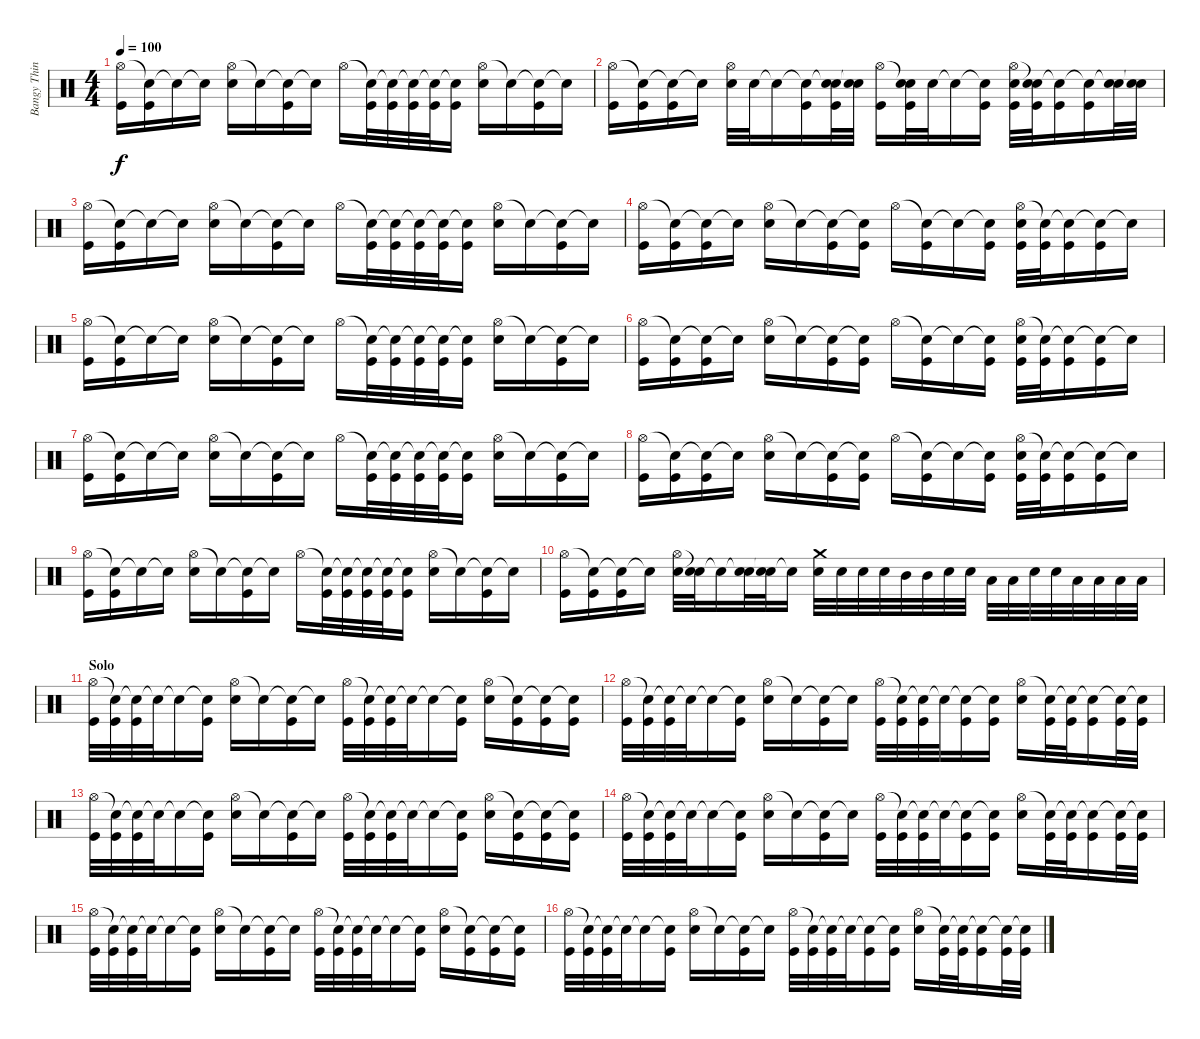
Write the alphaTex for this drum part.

\track ("Bangy Things" "Bangy Thin") {instrument percussion}
\staff {score}
\articulation defaults
\ts (4 4)
\tempo 100
\clef neutral
\ks c
("Hi-Hat (open)" "Kick (hit)").16{dy f} ("Snare (hit)"{t} "Kick (hit)").16 "Snare (hit)"{t}.16 "Snare (hit)"{t}.16 ("Hi-Hat (open)" "Electric Snare (hit)").16 "Snare (hit)"{t}.16 ("Snare (hit)"{t} "Kick (hit)").16 "Snare (hit)"{t}.16 "Hi-Hat (open)".16 ("Snare (hit)"{t} "Kick (hit)").32 ("Snare (hit)"{t} "Kick (hit)").32 ("Snare (hit)"{t} "Kick (hit)").32 ("Snare (hit)"{t} "Kick (hit)").32 ("Snare (hit)"{t} "Kick (hit)").16 ("Hi-Hat (open)" "Electric Snare (hit)").16 "Snare (hit)"{t}.16 ("Snare (hit)"{t} "Kick (hit)").16 "Snare (hit)"{t}.16 |
("Hi-Hat (open)" "Kick (hit)").16 ("Snare (hit)"{t} "Kick (hit)").16 ("Snare (hit)"{t} "Kick (hit)").16 "Snare (hit)"{t}.16 ("Hi-Hat (open)" "Electric Snare (hit)").32 "Electric Snare (hit)".32 "Snare (hit)"{t}.16 ("Snare (hit)"{t} "Kick (hit)").16 ("Snare (hit)"{t} "Electric Snare (hit)" "Kick (hit)").32 ("Snare (hit)"{t} "Electric Snare (hit)").32 ("Hi-Hat (open)" "Kick (hit)").16 ("Snare (hit)"{t} "Electric Snare (hit)" "Kick (hit)").32 "Electric Snare (hit)".32 "Snare (hit)"{t}.16 ("Snare (hit)"{t} "Kick (hit)").16 ("Hi-Hat (open)" "Electric Snare (hit)" "Kick (hit)").32 ("Snare (hit)"{t} "Electric Snare (hit)" "Kick (hit)").32 ("Snare (hit)"{t} "Kick (hit)").16 ("Snare (hit)"{t} "Kick (hit)").16 ("Snare (hit)"{t} "Electric Snare (hit)").32 ("Snare (hit)"{t} "Electric Snare (hit)").32 |
("Hi-Hat (open)" "Kick (hit)").16 ("Snare (hit)"{t} "Kick (hit)").16 "Snare (hit)"{t}.16 "Snare (hit)"{t}.16 ("Hi-Hat (open)" "Electric Snare (hit)").16 "Snare (hit)"{t}.16 ("Snare (hit)"{t} "Kick (hit)").16 "Snare (hit)"{t}.16 "Hi-Hat (open)".16 ("Snare (hit)"{t} "Kick (hit)").32 ("Snare (hit)"{t} "Kick (hit)").32 ("Snare (hit)"{t} "Kick (hit)").32 ("Snare (hit)"{t} "Kick (hit)").32 ("Snare (hit)"{t} "Kick (hit)").16 ("Hi-Hat (open)" "Electric Snare (hit)").16 "Snare (hit)"{t}.16 ("Snare (hit)"{t} "Kick (hit)").16 "Snare (hit)"{t}.16 |
("Hi-Hat (open)" "Kick (hit)").16 ("Snare (hit)"{t} "Kick (hit)").16 ("Snare (hit)"{t} "Kick (hit)").16 "Snare (hit)"{t}.16 ("Hi-Hat (open)" "Electric Snare (hit)").16 "Snare (hit)"{t}.16 ("Snare (hit)"{t} "Kick (hit)").16 ("Snare (hit)"{t} "Kick (hit)").16 "Hi-Hat (open)".16 ("Snare (hit)"{t} "Kick (hit)").16 "Snare (hit)"{t}.16 ("Snare (hit)"{t} "Kick (hit)").16 ("Hi-Hat (open)" "Electric Snare (hit)" "Kick (hit)").32 ("Snare (hit)"{t} "Kick (hit)").32 ("Snare (hit)"{t} "Kick (hit)").16 ("Snare (hit)"{t} "Kick (hit)").16 "Snare (hit)"{t}.16 |
("Hi-Hat (open)" "Kick (hit)").16 ("Snare (hit)"{t} "Kick (hit)").16 "Snare (hit)"{t}.16 "Snare (hit)"{t}.16 ("Hi-Hat (open)" "Electric Snare (hit)").16 "Snare (hit)"{t}.16 ("Snare (hit)"{t} "Kick (hit)").16 "Snare (hit)"{t}.16 "Hi-Hat (open)".16 ("Snare (hit)"{t} "Kick (hit)").32 ("Snare (hit)"{t} "Kick (hit)").32 ("Snare (hit)"{t} "Kick (hit)").32 ("Snare (hit)"{t} "Kick (hit)").32 ("Snare (hit)"{t} "Kick (hit)").16 ("Hi-Hat (open)" "Electric Snare (hit)").16 "Snare (hit)"{t}.16 ("Snare (hit)"{t} "Kick (hit)").16 "Snare (hit)"{t}.16 |
("Hi-Hat (open)" "Kick (hit)").16 ("Snare (hit)"{t} "Kick (hit)").16 ("Snare (hit)"{t} "Kick (hit)").16 "Snare (hit)"{t}.16 ("Hi-Hat (open)" "Electric Snare (hit)").16 "Snare (hit)"{t}.16 ("Snare (hit)"{t} "Kick (hit)").16 ("Snare (hit)"{t} "Kick (hit)").16 "Hi-Hat (open)".16 ("Snare (hit)"{t} "Kick (hit)").16 "Snare (hit)"{t}.16 ("Snare (hit)"{t} "Kick (hit)").16 ("Hi-Hat (open)" "Electric Snare (hit)" "Kick (hit)").32 ("Snare (hit)"{t} "Kick (hit)").32 ("Snare (hit)"{t} "Kick (hit)").16 ("Snare (hit)"{t} "Kick (hit)").16 "Snare (hit)"{t}.16 |
("Hi-Hat (open)" "Kick (hit)").16 ("Snare (hit)"{t} "Kick (hit)").16 "Snare (hit)"{t}.16 "Snare (hit)"{t}.16 ("Hi-Hat (open)" "Electric Snare (hit)").16 "Snare (hit)"{t}.16 ("Snare (hit)"{t} "Kick (hit)").16 "Snare (hit)"{t}.16 "Hi-Hat (open)".16 ("Snare (hit)"{t} "Kick (hit)").32 ("Snare (hit)"{t} "Kick (hit)").32 ("Snare (hit)"{t} "Kick (hit)").32 ("Snare (hit)"{t} "Kick (hit)").32 ("Snare (hit)"{t} "Kick (hit)").16 ("Hi-Hat (open)" "Electric Snare (hit)").16 "Snare (hit)"{t}.16 ("Snare (hit)"{t} "Kick (hit)").16 "Snare (hit)"{t}.16 |
("Hi-Hat (open)" "Kick (hit)").16 ("Snare (hit)"{t} "Kick (hit)").16 ("Snare (hit)"{t} "Kick (hit)").16 "Snare (hit)"{t}.16 ("Hi-Hat (open)" "Electric Snare (hit)").16 "Snare (hit)"{t}.16 ("Snare (hit)"{t} "Kick (hit)").16 ("Snare (hit)"{t} "Kick (hit)").16 "Hi-Hat (open)".16 ("Snare (hit)"{t} "Kick (hit)").16 "Snare (hit)"{t}.16 ("Snare (hit)"{t} "Kick (hit)").16 ("Hi-Hat (open)" "Electric Snare (hit)" "Kick (hit)").32 ("Snare (hit)"{t} "Kick (hit)").32 ("Snare (hit)"{t} "Kick (hit)").16 ("Snare (hit)"{t} "Kick (hit)").16 "Snare (hit)"{t}.16 |
("Hi-Hat (open)" "Kick (hit)").16 ("Snare (hit)"{t} "Kick (hit)").16 "Snare (hit)"{t}.16 "Snare (hit)"{t}.16 ("Hi-Hat (open)" "Electric Snare (hit)").16 "Snare (hit)"{t}.16 ("Snare (hit)"{t} "Kick (hit)").16 "Snare (hit)"{t}.16 "Hi-Hat (open)".16 ("Snare (hit)"{t} "Kick (hit)").32 ("Snare (hit)"{t} "Kick (hit)").32 ("Snare (hit)"{t} "Kick (hit)").32 ("Snare (hit)"{t} "Kick (hit)").32 ("Snare (hit)"{t} "Kick (hit)").16 ("Hi-Hat (open)" "Electric Snare (hit)").16 "Snare (hit)"{t}.16 ("Snare (hit)"{t} "Kick (hit)").16 "Snare (hit)"{t}.16 |
("Hi-Hat (open)" "Kick (hit)").16 ("Snare (hit)"{t} "Kick (hit)").16 ("Snare (hit)"{t} "Kick (hit)").16 "Snare (hit)"{t}.16 ("Hi-Hat (open)" "Electric Snare (hit)").32 ("Snare (hit)"{t} "Electric Snare (hit)").32 "Snare (hit)"{t}.16 ("Snare (hit)"{t} "Electric Snare (hit)").32 ("Snare (hit)"{t} "Electric Snare (hit)").32 "Snare (hit)"{t}.16 ("Crash medium (hit)" "Electric Snare (hit)").32 "Electric Snare (hit)".32 "Electric Snare (hit)".32 "Electric Snare (hit)".32 "Mid Tom (hit)".32 "Mid Tom (hit)".32 "Electric Snare (hit)".32 "Electric Snare (hit)".32 "Low Tom (hit)".32 "Low Tom (hit)".32 "Electric Snare (hit)".32 "Electric Snare (hit)".32 "Low Floor Tom (hit)".32 "Low Floor Tom (hit)".32 "Low Floor Tom (hit)".32 "Low Floor Tom (hit)".32 |
\section ("" "Solo")
("Hi-Hat (open)" "Kick (hit)").32 ("Snare (hit)"{t} "Kick (hit)").32 ("Snare (hit)"{t} "Kick (hit)").32 "Snare (hit)"{t}.32 "Snare (hit)"{t}.16 ("Snare (hit)"{t} "Kick (hit)").16 ("Hi-Hat (open)" "Electric Snare (hit)").16 "Snare (hit)"{t}.16 ("Snare (hit)"{t} "Kick (hit)").16 "Snare (hit)"{t}.16 ("Hi-Hat (open)" "Kick (hit)").32 ("Snare (hit)"{t} "Kick (hit)").32 ("Snare (hit)"{t} "Kick (hit)").32 "Snare (hit)"{t}.32 "Snare (hit)"{t}.16 ("Snare (hit)"{t} "Kick (hit)").16 ("Hi-Hat (open)" "Electric Snare (hit)").16 ("Snare (hit)"{t} "Kick (hit)").16 ("Snare (hit)"{t} "Kick (hit)").16 ("Snare (hit)"{t} "Kick (hit)").16 |
("Hi-Hat (open)" "Kick (hit)").32 ("Snare (hit)"{t} "Kick (hit)").32 ("Snare (hit)"{t} "Kick (hit)").32 "Snare (hit)"{t}.32 "Snare (hit)"{t}.16 ("Snare (hit)"{t} "Kick (hit)").16 ("Hi-Hat (open)" "Electric Snare (hit)").16 "Snare (hit)"{t}.16 ("Snare (hit)"{t} "Kick (hit)").16 "Snare (hit)"{t}.16 ("Hi-Hat (open)" "Kick (hit)").32 ("Snare (hit)"{t} "Kick (hit)").32 ("Snare (hit)"{t} "Kick (hit)").32 "Snare (hit)"{t}.32 ("Snare (hit)"{t} "Kick (hit)").16 ("Snare (hit)"{t} "Kick (hit)").16 ("Hi-Hat (open)" "Electric Snare (hit)").16 ("Snare (hit)"{t} "Kick (hit)").32 ("Snare (hit)"{t} "Kick (hit)").32 ("Snare (hit)"{t} "Kick (hit)").16 ("Snare (hit)"{t} "Kick (hit)").32 ("Snare (hit)"{t} "Kick (hit)").32 |
("Hi-Hat (open)" "Kick (hit)").32 ("Snare (hit)"{t} "Kick (hit)").32 ("Snare (hit)"{t} "Kick (hit)").32 "Snare (hit)"{t}.32 "Snare (hit)"{t}.16 ("Snare (hit)"{t} "Kick (hit)").16 ("Hi-Hat (open)" "Electric Snare (hit)").16 "Snare (hit)"{t}.16 ("Snare (hit)"{t} "Kick (hit)").16 "Snare (hit)"{t}.16 ("Hi-Hat (open)" "Kick (hit)").32 ("Snare (hit)"{t} "Kick (hit)").32 ("Snare (hit)"{t} "Kick (hit)").32 "Snare (hit)"{t}.32 "Snare (hit)"{t}.16 ("Snare (hit)"{t} "Kick (hit)").16 ("Hi-Hat (open)" "Electric Snare (hit)").16 ("Snare (hit)"{t} "Kick (hit)").16 ("Snare (hit)"{t} "Kick (hit)").16 ("Snare (hit)"{t} "Kick (hit)").16 |
("Hi-Hat (open)" "Kick (hit)").32 ("Snare (hit)"{t} "Kick (hit)").32 ("Snare (hit)"{t} "Kick (hit)").32 "Snare (hit)"{t}.32 "Snare (hit)"{t}.16 ("Snare (hit)"{t} "Kick (hit)").16 ("Hi-Hat (open)" "Electric Snare (hit)").16 "Snare (hit)"{t}.16 ("Snare (hit)"{t} "Kick (hit)").16 "Snare (hit)"{t}.16 ("Hi-Hat (open)" "Kick (hit)").32 ("Snare (hit)"{t} "Kick (hit)").32 ("Snare (hit)"{t} "Kick (hit)").32 "Snare (hit)"{t}.32 ("Snare (hit)"{t} "Kick (hit)").16 ("Snare (hit)"{t} "Kick (hit)").16 ("Hi-Hat (open)" "Electric Snare (hit)").16 ("Snare (hit)"{t} "Kick (hit)").32 ("Snare (hit)"{t} "Kick (hit)").32 ("Snare (hit)"{t} "Kick (hit)").16 ("Snare (hit)"{t} "Kick (hit)").32 ("Snare (hit)"{t} "Kick (hit)").32 |
("Hi-Hat (open)" "Kick (hit)").32 ("Snare (hit)"{t} "Kick (hit)").32 ("Snare (hit)"{t} "Kick (hit)").32 "Snare (hit)"{t}.32 "Snare (hit)"{t}.16 ("Snare (hit)"{t} "Kick (hit)").16 ("Hi-Hat (open)" "Electric Snare (hit)").16 "Snare (hit)"{t}.16 ("Snare (hit)"{t} "Kick (hit)").16 "Snare (hit)"{t}.16 ("Hi-Hat (open)" "Kick (hit)").32 ("Snare (hit)"{t} "Kick (hit)").32 ("Snare (hit)"{t} "Kick (hit)").32 "Snare (hit)"{t}.32 "Snare (hit)"{t}.16 ("Snare (hit)"{t} "Kick (hit)").16 ("Hi-Hat (open)" "Electric Snare (hit)").16 ("Snare (hit)"{t} "Kick (hit)").16 ("Snare (hit)"{t} "Kick (hit)").16 ("Snare (hit)"{t} "Kick (hit)").16 |
("Hi-Hat (open)" "Kick (hit)").32 ("Snare (hit)"{t} "Kick (hit)").32 ("Snare (hit)"{t} "Kick (hit)").32 "Snare (hit)"{t}.32 "Snare (hit)"{t}.16 ("Snare (hit)"{t} "Kick (hit)").16 ("Hi-Hat (open)" "Electric Snare (hit)").16 "Snare (hit)"{t}.16 ("Snare (hit)"{t} "Kick (hit)").16 "Snare (hit)"{t}.16 ("Hi-Hat (open)" "Kick (hit)").32 ("Snare (hit)"{t} "Kick (hit)").32 ("Snare (hit)"{t} "Kick (hit)").32 "Snare (hit)"{t}.32 ("Snare (hit)"{t} "Kick (hit)").16 ("Snare (hit)"{t} "Kick (hit)").16 ("Hi-Hat (open)" "Electric Snare (hit)").16 ("Snare (hit)"{t} "Kick (hit)").32 ("Snare (hit)"{t} "Kick (hit)").32 ("Snare (hit)"{t} "Kick (hit)").16 ("Snare (hit)"{t} "Kick (hit)").32 ("Snare (hit)"{t} "Kick (hit)").32
